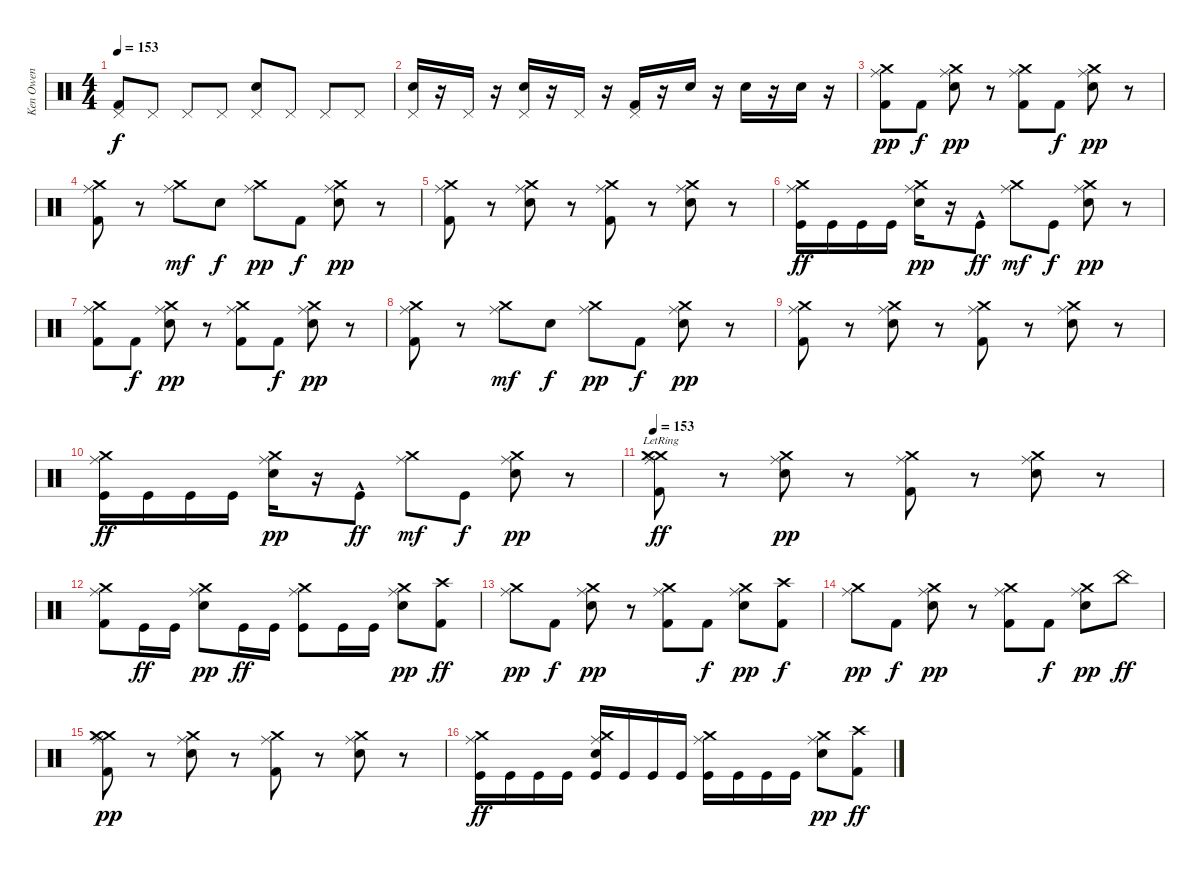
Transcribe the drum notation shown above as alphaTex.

\track ("Ken Owen" "Ken Owen") {instrument percussion}
\staff {score}
\articulation defaults
\ts (4 4)
\tempo 153
\clef neutral
\ks c
("Pedal Hi-Hat (hit)" "Kick (hit) 2").8{dy f} "Pedal Hi-Hat (hit)".8 "Pedal Hi-Hat (hit)".8 "Pedal Hi-Hat (hit)".8 ("Pedal Hi-Hat (hit)" "Electric Snare (hit)").8 "Pedal Hi-Hat (hit)".8 "Pedal Hi-Hat (hit)".8 "Pedal Hi-Hat (hit)".8 |
("Pedal Hi-Hat (hit)" "Electric Snare (hit)").16 r.16 "Pedal Hi-Hat (hit)".16 r.16 ("Pedal Hi-Hat (hit)" "Electric Snare (hit)").16 r.16 "Pedal Hi-Hat (hit)".16 r.16 ("Pedal Hi-Hat (hit)" "Kick (hit) 2").16 r.16 "Electric Snare (hit)".16 r.16 "Electric Snare (hit)".16 r.16 "Electric Snare (hit)".16 r.16 |
("Crash medium (hit)" "Ride (middle)" "Kick (hit) 2").8{dy pp} "Kick (hit) 2".8{dy f} ("Crash medium (hit)" "Ride (middle)" "Electric Snare (hit)").8{dy pp} r.8 ("Crash medium (hit)" "Ride (middle)" "Kick (hit) 2").8 "Kick (hit) 2".8{dy f} ("Crash medium (hit)" "Ride (middle)" "Electric Snare (hit)").8{dy pp} r.8 |
("Crash medium (hit)" "Ride (middle)" "Kick (hit) 2").8 r.8 ("Crash medium (hit)" "Ride (middle)").8{dy mf} "Electric Snare (hit)".8{dy f} ("Crash medium (hit)" "Ride (middle)").8{dy pp} "Kick (hit) 2".8{dy f} ("Crash medium (hit)" "Ride (middle)" "Electric Snare (hit)").8{dy pp} r.8 |
("Crash medium (hit)" "Ride (middle)" "Kick (hit) 2").8 r.8 ("Crash medium (hit)" "Ride (middle)" "Electric Snare (hit)").8 r.8 ("Crash medium (hit)" "Ride (middle)" "Kick (hit) 2").8 r.8 ("Crash medium (hit)" "Ride (middle)" "Electric Snare (hit)").8 r.8 |
("Crash medium (hit)" "Ride (middle)" "Kick (hit)").16{dy ff} "Kick (hit)".16 "Kick (hit)".16 "Kick (hit)".16 ("Crash medium (hit)" "Ride (middle)" "Electric Snare (hit)").16{dy pp} r.16 "Kick (hit)"{hac}.8{dy ff} ("Crash medium (hit)" "Ride (middle)").8{dy mf} "Kick (hit)".8{dy f} ("Crash medium (hit)" "Ride (middle)" "Electric Snare (hit)").8{dy pp} r.8 |
("Crash medium (hit)" "Ride (middle)" "Kick (hit) 2").8 "Kick (hit) 2".8{dy f} ("Crash medium (hit)" "Ride (middle)" "Electric Snare (hit)").8{dy pp} r.8 ("Crash medium (hit)" "Ride (middle)" "Kick (hit) 2").8 "Kick (hit) 2".8{dy f} ("Crash medium (hit)" "Ride (middle)" "Electric Snare (hit)").8{dy pp} r.8 |
("Crash medium (hit)" "Ride (middle)" "Kick (hit) 2").8 r.8 ("Crash medium (hit)" "Ride (middle)").8{dy mf} "Electric Snare (hit)".8{dy f} ("Crash medium (hit)" "Ride (middle)").8{dy pp} "Kick (hit) 2".8{dy f} ("Crash medium (hit)" "Ride (middle)" "Electric Snare (hit)").8{dy pp} r.8 |
("Crash medium (hit)" "Ride (middle)" "Kick (hit) 2").8 r.8 ("Crash medium (hit)" "Ride (middle)" "Electric Snare (hit)").8 r.8 ("Crash medium (hit)" "Ride (middle)" "Kick (hit) 2").8 r.8 ("Crash medium (hit)" "Ride (middle)" "Electric Snare (hit)").8 r.8 |
("Crash medium (hit)" "Ride (middle)" "Kick (hit)").16{dy ff} "Kick (hit)".16 "Kick (hit)".16 "Kick (hit)".16 ("Crash medium (hit)" "Ride (middle)" "Electric Snare (hit)").16{dy pp} r.16 "Kick (hit)"{hac}.8{dy ff} ("Crash medium (hit)" "Ride (middle)").8{dy mf} "Kick (hit)".8{dy f} ("Crash medium (hit)" "Ride (middle)" "Electric Snare (hit)").8{dy pp} r.8 |
\tempo 153
("Crash medium (hit)" "Ride (middle)" "Kick (hit) 2" "Crash medium (hit)"{lr}).8{dy ff} r.8 ("Crash medium (hit)" "Ride (middle)" "Electric Snare (hit)").8{dy pp} r.8 ("Crash medium (hit)" "Ride (middle)" "Kick (hit) 2").8 r.8 ("Crash medium (hit)" "Ride (middle)" "Electric Snare (hit)").8 r.8 |
("Crash medium (hit)" "Ride (middle)" "Kick (hit) 2").8 "Kick (hit)".16{dy ff} "Kick (hit)".16 ("Crash medium (hit)" "Ride (middle)" "Electric Snare (hit)").8{dy pp} "Kick (hit)".16{dy ff} "Kick (hit)".16 ("Crash medium (hit)" "Ride (middle)" "Kick (hit)").8 "Kick (hit)".16 "Kick (hit)".16 ("Crash medium (hit)" "Ride (middle)" "Electric Snare (hit)").8{dy pp} ("Kick (hit) 2" "Crash high (hit)").8{dy ff} |
("Crash medium (hit)" "Ride (middle)").8{dy pp} "Kick (hit) 2".8{dy f} ("Crash medium (hit)" "Ride (middle)" "Electric Snare (hit)").8{dy pp} r.8 ("Crash medium (hit)" "Ride (middle)" "Kick (hit) 2").8 "Kick (hit) 2".8{dy f} ("Crash medium (hit)" "Ride (middle)" "Electric Snare (hit)").8{dy pp} ("Kick (hit) 2" "Crash high (hit)").8{dy f} |
("Crash medium (hit)" "Ride (middle)").8{dy pp} "Kick (hit) 2".8{dy f} ("Crash medium (hit)" "Ride (middle)" "Electric Snare (hit)").8{dy pp} r.8 ("Crash medium (hit)" "Ride (middle)" "Kick (hit) 2").8 "Kick (hit) 2".8{dy f} ("Crash medium (hit)" "Ride (middle)" "Electric Snare (hit)").8{dy pp} "China (hit)".8{dy ff} |
("Crash medium (hit)" "Ride (middle)" "Kick (hit) 2" "Crash medium (hit)").8{dy pp} r.8 ("Crash medium (hit)" "Ride (middle)" "Electric Snare (hit)").8 r.8 ("Crash medium (hit)" "Ride (middle)" "Kick (hit) 2").8 r.8 ("Crash medium (hit)" "Ride (middle)" "Electric Snare (hit)").8 r.8 |
("Crash medium (hit)" "Ride (middle)" "Kick (hit)").16{dy ff} "Kick (hit)".16 "Kick (hit)".16 "Kick (hit)".16 ("Crash medium (hit)" "Ride (middle)" "Kick (hit)" "Electric Snare (hit)").16 "Kick (hit)".16 "Kick (hit)".16 "Kick (hit)".16 ("Crash medium (hit)" "Ride (middle)" "Kick (hit)").16 "Kick (hit)".16 "Kick (hit)".16 "Kick (hit)".16 ("Crash medium (hit)" "Ride (middle)" "Electric Snare (hit)").8{dy pp} ("Kick (hit) 2" "Crash high (hit)").8{dy ff}
